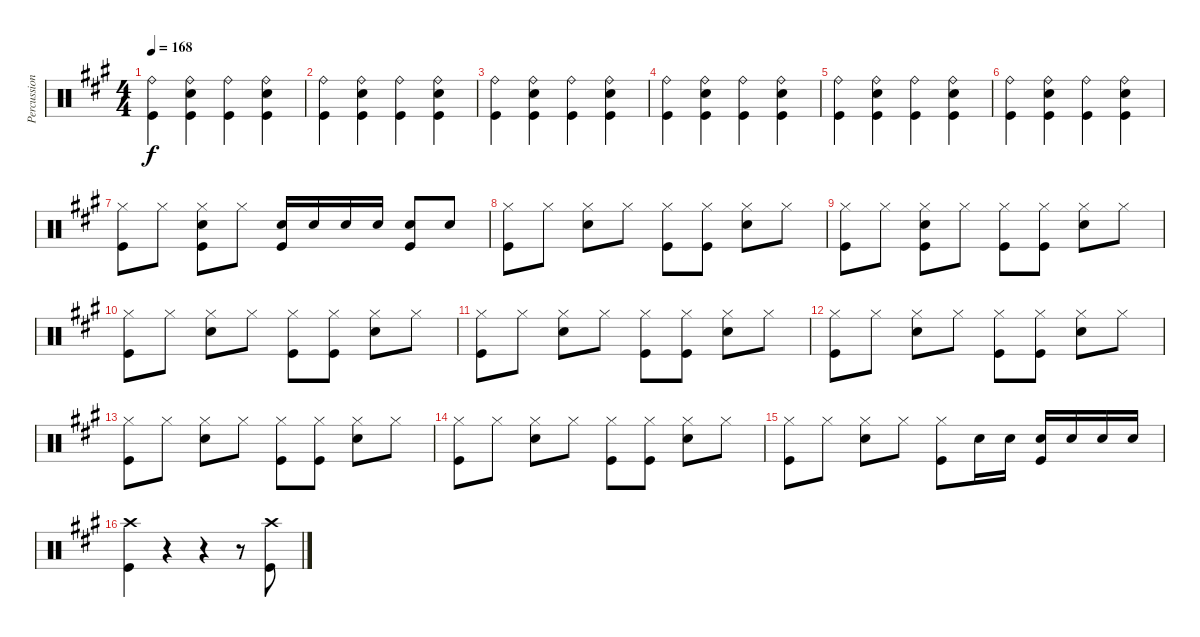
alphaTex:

\track ("Percussion" "Percussion") {instrument percussion}
\staff {score}
\articulation defaults
\ts (4 4)
\tempo 168
\clef neutral
\ks a
("Ride (bell)" "Kick (hit)").4{dy f} ("Ride (bell)" "Snare (hit) 2" "Kick (hit)").4 ("Ride (bell)" "Kick (hit)").4 ("Ride (bell)" "Snare (hit) 2" "Kick (hit)").4 |
("Ride (bell)" "Kick (hit)").4 ("Ride (bell)" "Snare (hit) 2" "Kick (hit)").4 ("Ride (bell)" "Kick (hit)").4 ("Ride (bell)" "Snare (hit) 2" "Kick (hit)").4 |
("Ride (bell)" "Kick (hit)").4 ("Ride (bell)" "Snare (hit) 2" "Kick (hit)").4 ("Ride (bell)" "Kick (hit)").4 ("Ride (bell)" "Snare (hit) 2" "Kick (hit)").4 |
("Ride (bell)" "Kick (hit)").4 ("Ride (bell)" "Snare (hit) 2" "Kick (hit)").4 ("Ride (bell)" "Kick (hit)").4 ("Ride (bell)" "Snare (hit) 2" "Kick (hit)").4 |
("Ride (bell)" "Kick (hit)").4 ("Ride (bell)" "Snare (hit) 2" "Kick (hit)").4 ("Ride (bell)" "Kick (hit)").4 ("Ride (bell)" "Snare (hit) 2" "Kick (hit)").4 |
("Ride (bell)" "Kick (hit)").4 ("Ride (bell)" "Snare (hit) 2" "Kick (hit)").4 ("Ride (bell)" "Kick (hit)").4 ("Ride (bell)" "Snare (hit) 2" "Kick (hit)").4 |
("Hi-Hat (closed)" "Kick (hit)").8 "Hi-Hat (closed)".8 ("Hi-Hat (closed)" "Snare (hit) 2" "Kick (hit)").8 "Hi-Hat (closed)".8 ("Snare (hit) 2" "Kick (hit)").16 "Snare (hit) 2".16 "Snare (hit) 2".16 "Snare (hit) 2".16 ("Snare (hit) 2" "Kick (hit)").8 "Snare (hit) 2".8 |
("Hi-Hat (closed)" "Kick (hit)").8 "Hi-Hat (closed)".8 ("Hi-Hat (closed)" "Snare (hit) 2").8 "Hi-Hat (closed)".8 ("Hi-Hat (closed)" "Kick (hit)").8 ("Hi-Hat (closed)" "Kick (hit)").8 ("Hi-Hat (closed)" "Snare (hit) 2").8 "Hi-Hat (closed)".8 |
("Hi-Hat (closed)" "Kick (hit)").8 "Hi-Hat (closed)".8 ("Hi-Hat (closed)" "Snare (hit) 2" "Kick (hit)").8 "Hi-Hat (closed)".8 ("Hi-Hat (closed)" "Kick (hit)").8 ("Hi-Hat (closed)" "Kick (hit)").8 ("Hi-Hat (closed)" "Snare (hit) 2").8 "Hi-Hat (closed)".8 |
("Hi-Hat (closed)" "Kick (hit)").8 "Hi-Hat (closed)".8 ("Hi-Hat (closed)" "Snare (hit) 2").8 "Hi-Hat (closed)".8 ("Hi-Hat (closed)" "Kick (hit)").8 ("Hi-Hat (closed)" "Kick (hit)").8 ("Hi-Hat (closed)" "Snare (hit) 2").8 "Hi-Hat (closed)".8 |
("Hi-Hat (closed)" "Kick (hit)").8 "Hi-Hat (closed)".8 ("Hi-Hat (closed)" "Snare (hit) 2").8 "Hi-Hat (closed)".8 ("Hi-Hat (closed)" "Kick (hit)").8 ("Hi-Hat (closed)" "Kick (hit)").8 ("Hi-Hat (closed)" "Snare (hit) 2").8 "Hi-Hat (closed)".8 |
("Hi-Hat (closed)" "Kick (hit)").8 "Hi-Hat (closed)".8 ("Hi-Hat (closed)" "Snare (hit) 2").8 "Hi-Hat (closed)".8 ("Hi-Hat (closed)" "Kick (hit)").8 ("Hi-Hat (closed)" "Kick (hit)").8 ("Hi-Hat (closed)" "Snare (hit) 2").8 "Hi-Hat (closed)".8 |
("Hi-Hat (closed)" "Kick (hit)").8 "Hi-Hat (closed)".8 ("Hi-Hat (closed)" "Snare (hit) 2").8 "Hi-Hat (closed)".8 ("Hi-Hat (closed)" "Kick (hit)").8 ("Hi-Hat (closed)" "Kick (hit)").8 ("Hi-Hat (closed)" "Snare (hit) 2").8 "Hi-Hat (closed)".8 |
("Hi-Hat (closed)" "Kick (hit)").8 "Hi-Hat (closed)".8 ("Hi-Hat (closed)" "Snare (hit) 2").8 "Hi-Hat (closed)".8 ("Hi-Hat (closed)" "Kick (hit)").8 ("Hi-Hat (closed)" "Kick (hit)").8 ("Hi-Hat (closed)" "Snare (hit) 2").8 "Hi-Hat (closed)".8 |
("Hi-Hat (closed)" "Kick (hit)").8 "Hi-Hat (closed)".8 ("Hi-Hat (closed)" "Snare (hit) 2").8 "Hi-Hat (closed)".8 ("Hi-Hat (closed)" "Kick (hit)").8 "Snare (hit) 2".16 "Snare (hit) 2".16 ("Snare (hit) 2" "Kick (hit)").16 "Snare (hit) 2".16 "Snare (hit) 2".16 "Snare (hit) 2".16 |
("Crash high (hit)" "Kick (hit)").4 r.4 r.4 r.8 ("Crash high (hit)" "Kick (hit)").8
